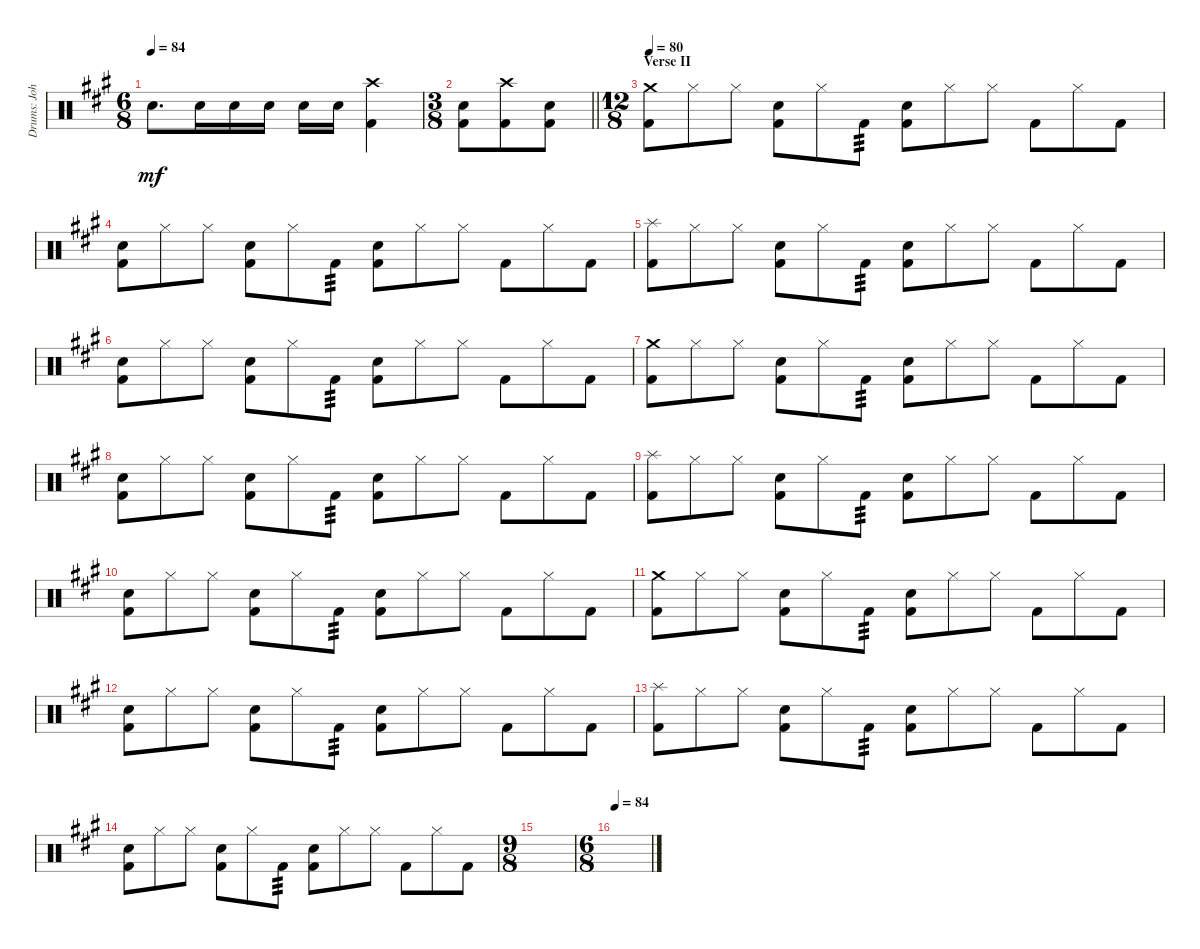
\track ("Drums: John" "Drums: Joh") {instrument percussion}
\staff {score}
\articulation defaults
\ts (6 8)
\tempo 84
\clef neutral
\ks a "Electric Snare (hit)".8{d dy mf} "Electric Snare (hit)".16 "Electric Snare (hit)".16 "Electric Snare (hit)".16 "Electric Snare (hit)".16 "Electric Snare (hit)".16
("Crash high (hit)" "Kick (hit) 2").4 |
\ts (3 8)
\barLineRight lightlight
("Electric Snare (hit)" "Kick (hit) 2").8 ("Crash high (hit)" "Kick (hit) 2").8 ("Electric Snare (hit)" "Kick (hit) 2").8 |
\ts (12 8)
\section ("" "Verse II")
\tempo 80
("Crash medium (hit)" "Kick (hit) 2").8 "Hi-Hat (closed)".8 "Hi-Hat (closed)".8 ("Electric Snare (hit)" "Kick (hit) 2").8 "Hi-Hat (closed)".8 "Kick (hit) 2".8{tp 3} ("Electric Snare (hit)" "Kick (hit) 2").8 "Hi-Hat (closed)".8 "Hi-Hat (closed)".8 "Kick (hit) 2".8 "Hi-Hat (closed)".8 "Kick (hit) 2".8 |
("Electric Snare (hit)" "Kick (hit) 2").8 "Hi-Hat (closed)".8 "Hi-Hat (closed)".8 ("Electric Snare (hit)" "Kick (hit) 2").8 "Hi-Hat (closed)".8 "Kick (hit) 2".8{tp 3} ("Electric Snare (hit)" "Kick (hit) 2").8 "Hi-Hat (closed)".8 "Hi-Hat (closed)".8 "Kick (hit) 2".8 "Hi-Hat (closed)".8 "Kick (hit) 2".8 |
("Splash (hit)" "Kick (hit) 2").8 "Hi-Hat (closed)".8 "Hi-Hat (closed)".8 ("Electric Snare (hit)" "Kick (hit) 2").8 "Hi-Hat (closed)".8 "Kick (hit) 2".8{tp 3} ("Electric Snare (hit)" "Kick (hit) 2").8 "Hi-Hat (closed)".8 "Hi-Hat (closed)".8 "Kick (hit) 2".8 "Hi-Hat (closed)".8 "Kick (hit) 2".8 |
("Electric Snare (hit)" "Kick (hit) 2").8 "Hi-Hat (closed)".8 "Hi-Hat (closed)".8 ("Electric Snare (hit)" "Kick (hit) 2").8 "Hi-Hat (closed)".8 "Kick (hit) 2".8{tp 3} ("Electric Snare (hit)" "Kick (hit) 2").8 "Hi-Hat (closed)".8 "Hi-Hat (closed)".8 "Kick (hit) 2".8 "Hi-Hat (closed)".8 "Kick (hit) 2".8 |
("Crash medium (hit)" "Kick (hit) 2").8 "Hi-Hat (closed)".8 "Hi-Hat (closed)".8 ("Electric Snare (hit)" "Kick (hit) 2").8 "Hi-Hat (closed)".8 "Kick (hit) 2".8{tp 3} ("Electric Snare (hit)" "Kick (hit) 2").8 "Hi-Hat (closed)".8 "Hi-Hat (closed)".8 "Kick (hit) 2".8 "Hi-Hat (closed)".8 "Kick (hit) 2".8 |
("Electric Snare (hit)" "Kick (hit) 2").8 "Hi-Hat (closed)".8 "Hi-Hat (closed)".8 ("Electric Snare (hit)" "Kick (hit) 2").8 "Hi-Hat (closed)".8 "Kick (hit) 2".8{tp 3} ("Electric Snare (hit)" "Kick (hit) 2").8 "Hi-Hat (closed)".8 "Hi-Hat (closed)".8 "Kick (hit) 2".8 "Hi-Hat (closed)".8 "Kick (hit) 2".8 |
("Splash (hit)" "Kick (hit) 2").8 "Hi-Hat (closed)".8 "Hi-Hat (closed)".8 ("Electric Snare (hit)" "Kick (hit) 2").8 "Hi-Hat (closed)".8 "Kick (hit) 2".8{tp 3} ("Electric Snare (hit)" "Kick (hit) 2").8 "Hi-Hat (closed)".8 "Hi-Hat (closed)".8 "Kick (hit) 2".8 "Hi-Hat (closed)".8 "Kick (hit) 2".8 |
("Electric Snare (hit)" "Kick (hit) 2").8 "Hi-Hat (closed)".8 "Hi-Hat (closed)".8 ("Electric Snare (hit)" "Kick (hit) 2").8 "Hi-Hat (closed)".8 "Kick (hit) 2".8{tp 3} ("Electric Snare (hit)" "Kick (hit) 2").8 "Hi-Hat (closed)".8 "Hi-Hat (closed)".8 "Kick (hit) 2".8 "Hi-Hat (closed)".8 "Kick (hit) 2".8 |
("Crash medium (hit)" "Kick (hit) 2").8 "Hi-Hat (closed)".8 "Hi-Hat (closed)".8 ("Electric Snare (hit)" "Kick (hit) 2").8 "Hi-Hat (closed)".8 "Kick (hit) 2".8{tp 3} ("Electric Snare (hit)" "Kick (hit) 2").8 "Hi-Hat (closed)".8 "Hi-Hat (closed)".8 "Kick (hit) 2".8 "Hi-Hat (closed)".8 "Kick (hit) 2".8 |
("Electric Snare (hit)" "Kick (hit) 2").8 "Hi-Hat (closed)".8 "Hi-Hat (closed)".8 ("Electric Snare (hit)" "Kick (hit) 2").8 "Hi-Hat (closed)".8 "Kick (hit) 2".8{tp 3} ("Electric Snare (hit)" "Kick (hit) 2").8 "Hi-Hat (closed)".8 "Hi-Hat (closed)".8 "Kick (hit) 2".8 "Hi-Hat (closed)".8 "Kick (hit) 2".8 |
("Splash (hit)" "Kick (hit) 2").8 "Hi-Hat (closed)".8 "Hi-Hat (closed)".8 ("Electric Snare (hit)" "Kick (hit) 2").8 "Hi-Hat (closed)".8 "Kick (hit) 2".8{tp 3} ("Electric Snare (hit)" "Kick (hit) 2").8 "Hi-Hat (closed)".8 "Hi-Hat (closed)".8 "Kick (hit) 2".8 "Hi-Hat (closed)".8 "Kick (hit) 2".8 |
("Electric Snare (hit)" "Kick (hit) 2").8 "Hi-Hat (closed)".8 "Hi-Hat (closed)".8 ("Electric Snare (hit)" "Kick (hit) 2").8 "Hi-Hat (closed)".8 "Kick (hit) 2".8{tp 3} ("Electric Snare (hit)" "Kick (hit) 2").8 "Hi-Hat (closed)".8 "Hi-Hat (closed)".8 "Kick (hit) 2".8 "Hi-Hat (closed)".8 "Kick (hit) 2".8 |
\ts (9 8)
|
\ts (6 8)
\tempo 84
